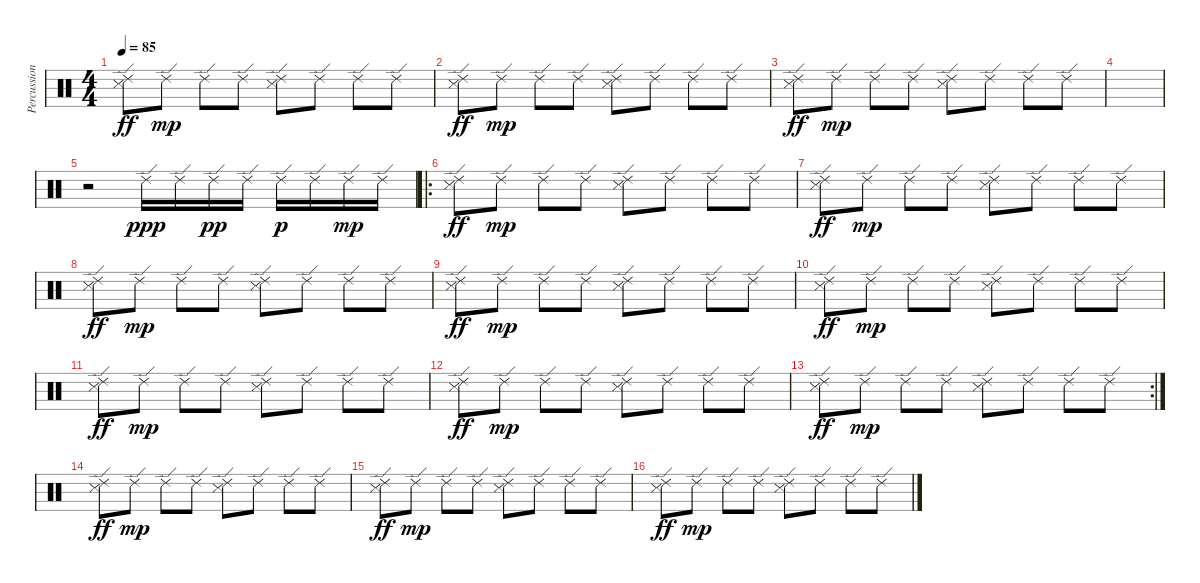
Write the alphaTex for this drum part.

\track ("Percussions (Moe Tucker)" "Percussion") {instrument percussion}
\staff {score}
\articulation defaults
\ts (4 4)
\tempo 85
\clef neutral
\ks c
("Ride (edge) 2" "Snare (side stick) 3").8{dy ff} "Ride (edge) 2".8{dy mp} "Ride (edge) 2".8 "Ride (edge) 2".8 ("Ride (edge) 2" "Snare (side stick) 3").8 "Ride (edge) 2".8 "Ride (edge) 2".8 "Ride (edge) 2".8 |
("Ride (edge) 2" "Snare (side stick) 3").8{dy ff} "Ride (edge) 2".8{dy mp} "Ride (edge) 2".8 "Ride (edge) 2".8 ("Ride (edge) 2" "Snare (side stick) 3").8 "Ride (edge) 2".8 "Ride (edge) 2".8 "Ride (edge) 2".8 |
("Ride (edge) 2" "Snare (side stick) 3").8{dy ff} "Ride (edge) 2".8{dy mp} "Ride (edge) 2".8 "Ride (edge) 2".8 ("Ride (edge) 2" "Snare (side stick) 3").8 "Ride (edge) 2".8 "Ride (edge) 2".8 "Ride (edge) 2".8 |
|
r.2 "Ride (edge) 2".16{dy ppp} "Ride (edge) 2".16 "Ride (edge) 2".16{dy pp} "Ride (edge) 2".16 "Ride (edge) 2".16{dy p} "Ride (edge) 2".16 "Ride (edge) 2".16{dy mp} "Ride (edge) 2".16 |
\ro
("Ride (edge) 2" "Snare (side stick) 3").8{dy ff} "Ride (edge) 2".8{dy mp} "Ride (edge) 2".8 "Ride (edge) 2".8 ("Ride (edge) 2" "Snare (side stick) 3").8 "Ride (edge) 2".8 "Ride (edge) 2".8 "Ride (edge) 2".8 |
("Ride (edge) 2" "Snare (side stick) 3").8{dy ff} "Ride (edge) 2".8{dy mp} "Ride (edge) 2".8 "Ride (edge) 2".8 ("Ride (edge) 2" "Snare (side stick) 3").8 "Ride (edge) 2".8 "Ride (edge) 2".8 "Ride (edge) 2".8 |
("Ride (edge) 2" "Snare (side stick) 3").8{dy ff} "Ride (edge) 2".8{dy mp} "Ride (edge) 2".8 "Ride (edge) 2".8 ("Ride (edge) 2" "Snare (side stick) 3").8 "Ride (edge) 2".8 "Ride (edge) 2".8 "Ride (edge) 2".8 |
("Ride (edge) 2" "Snare (side stick) 3").8{dy ff} "Ride (edge) 2".8{dy mp} "Ride (edge) 2".8 "Ride (edge) 2".8 ("Ride (edge) 2" "Snare (side stick) 3").8 "Ride (edge) 2".8 "Ride (edge) 2".8 "Ride (edge) 2".8 |
("Ride (edge) 2" "Snare (side stick) 3").8{dy ff} "Ride (edge) 2".8{dy mp} "Ride (edge) 2".8 "Ride (edge) 2".8 ("Ride (edge) 2" "Snare (side stick) 3").8 "Ride (edge) 2".8 "Ride (edge) 2".8 "Ride (edge) 2".8 |
("Ride (edge) 2" "Snare (side stick) 3").8{dy ff} "Ride (edge) 2".8{dy mp} "Ride (edge) 2".8 "Ride (edge) 2".8 ("Ride (edge) 2" "Snare (side stick) 3").8 "Ride (edge) 2".8 "Ride (edge) 2".8 "Ride (edge) 2".8 |
("Ride (edge) 2" "Snare (side stick) 3").8{dy ff} "Ride (edge) 2".8{dy mp} "Ride (edge) 2".8 "Ride (edge) 2".8 ("Ride (edge) 2" "Snare (side stick) 3").8 "Ride (edge) 2".8 "Ride (edge) 2".8 "Ride (edge) 2".8 |
\rc 2
("Ride (edge) 2" "Snare (side stick) 3").8{dy ff} "Ride (edge) 2".8{dy mp} "Ride (edge) 2".8 "Ride (edge) 2".8 ("Ride (edge) 2" "Snare (side stick) 3").8 "Ride (edge) 2".8 "Ride (edge) 2".8 "Ride (edge) 2".8 |
("Ride (edge) 2" "Snare (side stick) 3").8{dy ff} "Ride (edge) 2".8{dy mp} "Ride (edge) 2".8 "Ride (edge) 2".8 ("Ride (edge) 2" "Snare (side stick) 3").8 "Ride (edge) 2".8 "Ride (edge) 2".8 "Ride (edge) 2".8 |
("Ride (edge) 2" "Snare (side stick) 3").8{dy ff} "Ride (edge) 2".8{dy mp} "Ride (edge) 2".8 "Ride (edge) 2".8 ("Ride (edge) 2" "Snare (side stick) 3").8 "Ride (edge) 2".8 "Ride (edge) 2".8 "Ride (edge) 2".8 |
("Ride (edge) 2" "Snare (side stick) 3").8{dy ff} "Ride (edge) 2".8{dy mp} "Ride (edge) 2".8 "Ride (edge) 2".8 ("Ride (edge) 2" "Snare (side stick) 3").8 "Ride (edge) 2".8 "Ride (edge) 2".8 "Ride (edge) 2".8
